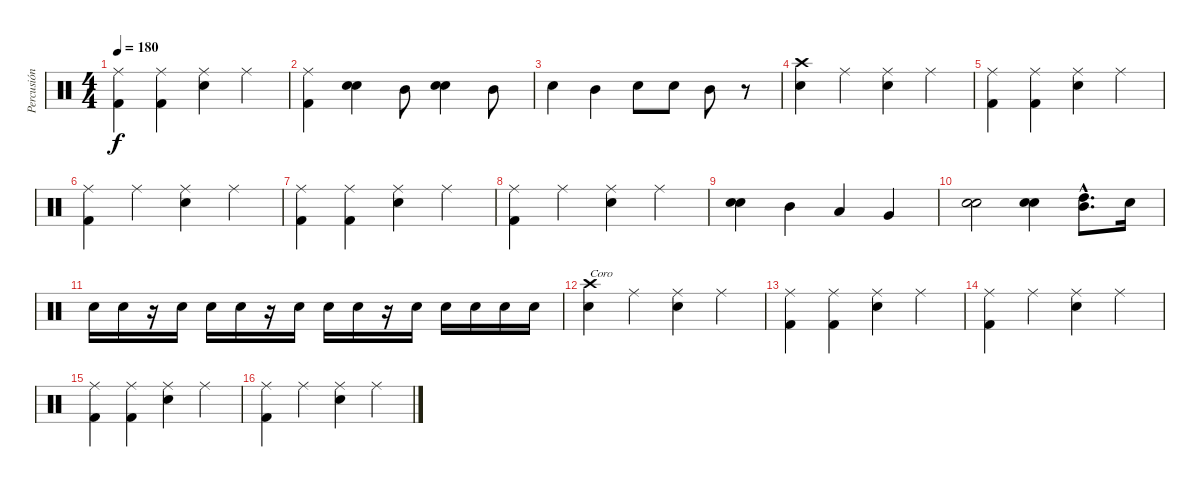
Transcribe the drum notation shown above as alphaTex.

\track ("Percusión" "Percusión") {instrument percussion}
\staff {score}
\articulation defaults
\ts (4 4)
\tempo 180
\clef neutral
\ks c
("Ride (middle)" "Kick (hit) 2").4{dy f} ("Ride (middle)" "Kick (hit) 2").4 ("Ride (middle)" "Snare (hit) 2").4 "Ride (middle)".4 |
("Ride (middle)" "Kick (hit) 2").4 ("Snare (hit) 2" "Snare (hit) 2").4{bu 240} "Mid Tom (hit)".8 ("Snare (hit) 2" "Snare (hit) 2").4{bu 240} "Mid Tom (hit)".8 |
"Snare (hit) 2".4 "Mid Tom (hit)".4 "Snare (hit) 2".8 "Snare (hit) 2".8 "Mid Tom (hit)".8 r.8 |
("Crash high (hit)" "Snare (hit) 2").4 "Ride (middle)".4 ("Ride (middle)" "Snare (hit) 2").4 "Ride (middle)".4 |
("Ride (middle)" "Kick (hit) 2").4 ("Ride (middle)" "Kick (hit) 2").4 ("Ride (middle)" "Snare (hit) 2").4 "Ride (middle)".4 |
("Ride (middle)" "Kick (hit) 2").4 "Ride (middle)".4 ("Ride (middle)" "Snare (hit) 2").4 "Ride (middle)".4 |
("Ride (middle)" "Kick (hit) 2").4 ("Ride (middle)" "Kick (hit) 2").4 ("Ride (middle)" "Snare (hit) 2").4 "Ride (middle)".4 |
("Ride (middle)" "Kick (hit) 2").4 "Ride (middle)".4 ("Ride (middle)" "Snare (hit) 2").4 "Ride (middle)".4 |
("Snare (hit) 2" "Snare (hit) 2").4{bu 240} "Mid Tom (hit)".4 "Low Tom (hit)".4 "Very Low Tom (hit)".4 |
("Electric Snare (hit)" "Electric Snare (hit)").2{bu 240} ("Electric Snare (hit)" "Electric Snare (hit)").4{bu 240} ("Mid Tom (hit)"{hac} "High Tom (hit)"{hac}).8{d} "Electric Snare (hit)".16 |
"Electric Snare (hit)".16 "Electric Snare (hit)".16 r.16 "Electric Snare (hit)".16 "Electric Snare (hit)".16 "Electric Snare (hit)".16 r.16 "Electric Snare (hit)".16 "Electric Snare (hit)".16 "Electric Snare (hit)".16 r.16 "Electric Snare (hit)".16 "Electric Snare (hit)".16 "Electric Snare (hit)".16 "Electric Snare (hit)".16 "Electric Snare (hit)".16 |
("Crash high (hit)" "Snare (hit) 2").4{txt "Coro"} "Ride (middle)".4 ("Ride (middle)" "Snare (hit) 2").4 "Ride (middle)".4 |
("Ride (middle)" "Kick (hit) 2").4 ("Ride (middle)" "Kick (hit) 2").4 ("Ride (middle)" "Snare (hit) 2").4 "Ride (middle)".4 |
("Ride (middle)" "Kick (hit) 2").4 "Ride (middle)".4 ("Ride (middle)" "Snare (hit) 2").4 "Ride (middle)".4 |
("Ride (middle)" "Kick (hit) 2").4 ("Ride (middle)" "Kick (hit) 2").4 ("Ride (middle)" "Snare (hit) 2").4 "Ride (middle)".4 |
("Ride (middle)" "Kick (hit) 2").4 "Ride (middle)".4 ("Ride (middle)" "Snare (hit) 2").4 "Ride (middle)".4
